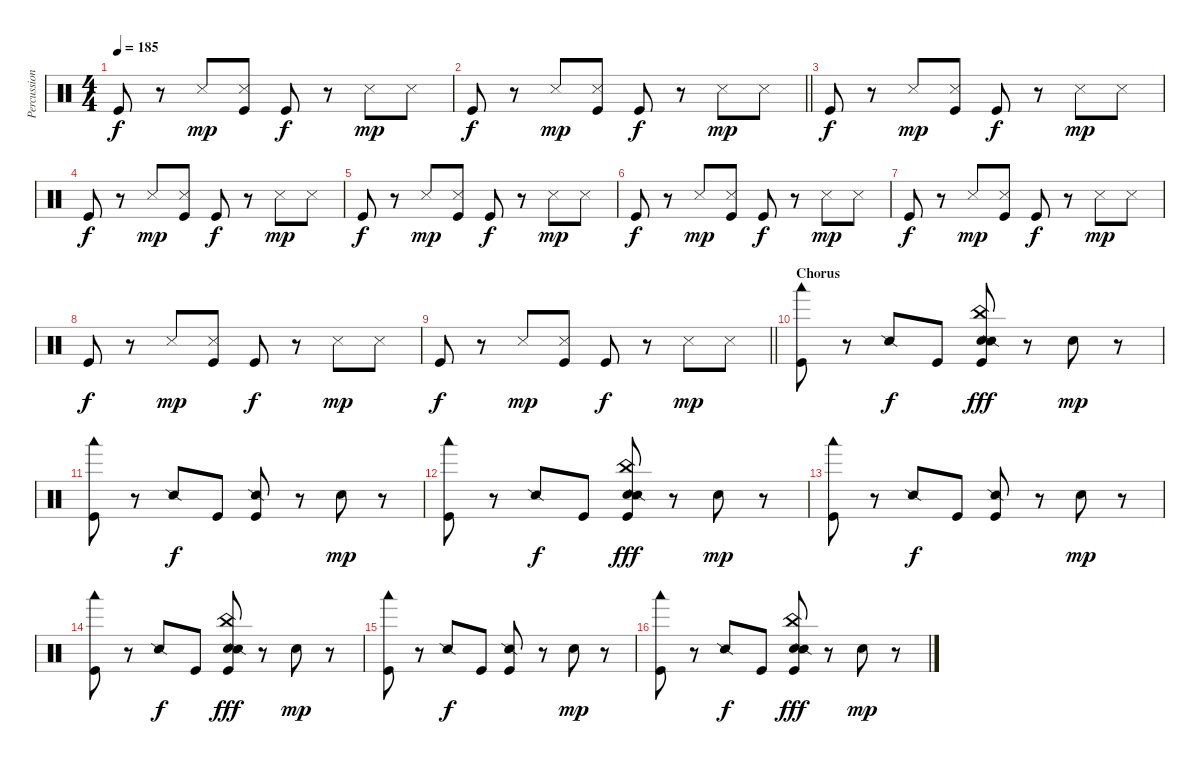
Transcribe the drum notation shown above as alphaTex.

\track ("Percussion" "Percussion") {instrument percussion}
\staff {score}
\articulation defaults
\ts (4 4)
\tempo 185
\clef neutral
\ks c "Kick (hit)".8{dy f}
r.8 "Metronome (hit)".8{dy mp} ("Metronome (hit)" "Kick (hit)").8 "Kick (hit)".8{dy f} r.8 "Snare (side stick) 3".8{dy mp} "Snare (side stick) 3".8 |
\barLineRight lightlight "Kick (hit)".8{dy f}
r.8 "Metronome (hit)".8{dy mp} ("Metronome (hit)" "Kick (hit)").8 "Kick (hit)".8{dy f} r.8 "Snare (side stick) 3".8{dy mp} "Snare (side stick) 3".8 |
"Kick (hit)".8{dy f} r.8 "Metronome (hit)".8{dy mp} ("Metronome (hit)" "Kick (hit)").8 "Kick (hit)".8{dy f} r.8 "Snare (side stick) 3".8{dy mp} "Snare (side stick) 3".8 |
"Kick (hit)".8{dy f} r.8 "Metronome (hit)".8{dy mp} ("Metronome (hit)" "Kick (hit)").8 "Kick (hit)".8{dy f} r.8 "Snare (side stick) 3".8{dy mp} "Snare (side stick) 3".8 |
"Kick (hit)".8{dy f} r.8 "Metronome (hit)".8{dy mp} ("Metronome (hit)" "Kick (hit)").8 "Kick (hit)".8{dy f} r.8 "Snare (side stick) 3".8{dy mp} "Snare (side stick) 3".8 |
"Kick (hit)".8{dy f} r.8 "Metronome (hit)".8{dy mp} ("Metronome (hit)" "Kick (hit)").8 "Kick (hit)".8{dy f} r.8 "Snare (side stick) 3".8{dy mp} "Snare (side stick) 3".8 |
"Kick (hit)".8{dy f} r.8 "Metronome (hit)".8{dy mp} ("Metronome (hit)" "Kick (hit)").8 "Kick (hit)".8{dy f} r.8 "Snare (side stick) 3".8{dy mp} "Snare (side stick) 3".8 |
"Kick (hit)".8{dy f} r.8 "Metronome (hit)".8{dy mp} ("Metronome (hit)" "Kick (hit)").8 "Kick (hit)".8{dy f} r.8 "Snare (side stick) 3".8{dy mp} "Snare (side stick) 3".8 |
\barLineRight lightlight "Kick (hit)".8{dy f}
r.8 "Metronome (hit)".8{dy mp} ("Metronome (hit)" "Kick (hit)").8 "Kick (hit)".8{dy f} r.8 "Snare (side stick) 3".8{dy mp} "Snare (side stick) 3".8 |
\section ("" "Chorus")
("Woodblock low (hit)" "Kick (hit)").8 r.8 "Snare (side stick) 2".8{dy f} "Kick (hit)".8 ("China (hit)" "Snare (hit) 2" "Snare (side stick) 2" "Kick (hit)").8{dy fff} r.8 "Electric Snare (hit)".8{dy mp} r.8 |
("Woodblock low (hit)" "Kick (hit)").8 r.8 "Snare (side stick) 2".8{dy f} "Kick (hit)".8 ("Snare (side stick) 2" "Kick (hit)").8 r.8 "Electric Snare (hit)".8{dy mp} r.8 |
("Woodblock low (hit)" "Kick (hit)").8 r.8 "Snare (side stick) 2".8{dy f} "Kick (hit)".8 ("China (hit)" "Snare (hit) 2" "Snare (side stick) 2" "Kick (hit)").8{dy fff} r.8 "Electric Snare (hit)".8{dy mp} r.8 |
("Woodblock low (hit)" "Kick (hit)").8 r.8 "Snare (side stick) 2".8{dy f} "Kick (hit)".8 ("Snare (side stick) 2" "Kick (hit)").8 r.8 "Electric Snare (hit)".8{dy mp} r.8 |
("Woodblock low (hit)" "Kick (hit)").8 r.8 "Snare (side stick) 2".8{dy f} "Kick (hit)".8 ("China (hit)" "Snare (hit) 2" "Snare (side stick) 2" "Kick (hit)").8{dy fff} r.8 "Electric Snare (hit)".8{dy mp} r.8 |
("Woodblock low (hit)" "Kick (hit)").8 r.8 "Snare (side stick) 2".8{dy f} "Kick (hit)".8 ("Snare (side stick) 2" "Kick (hit)").8 r.8 "Electric Snare (hit)".8{dy mp} r.8 |
("Woodblock low (hit)" "Kick (hit)").8 r.8 "Snare (side stick) 2".8{dy f} "Kick (hit)".8 ("China (hit)" "Snare (hit) 2" "Snare (side stick) 2" "Kick (hit)").8{dy fff} r.8 "Electric Snare (hit)".8{dy mp} r.8
